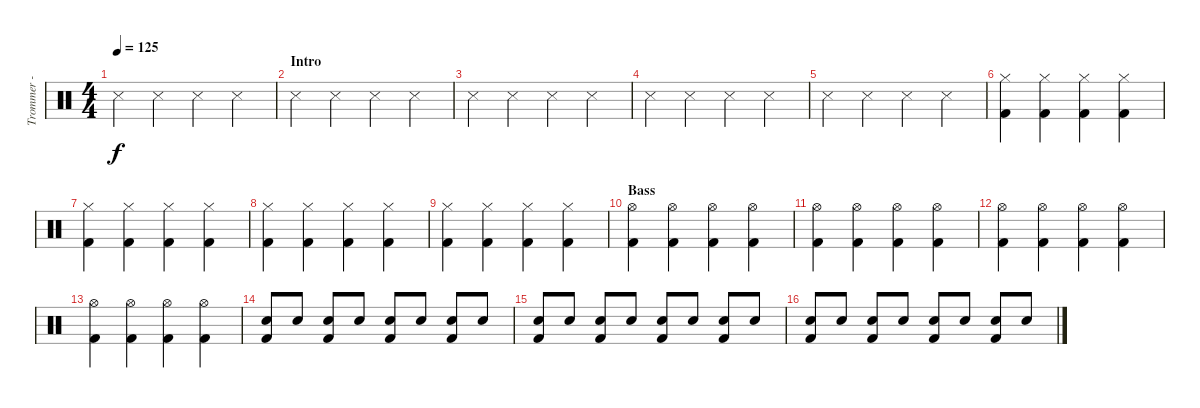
\track ("Trommer - Alex" "Trommer - ") {instrument percussion}
\staff {score}
\articulation defaults
\ts (4 4)
\tempo 125
\clef neutral
\ks c "Snare (side stick) 3".4{dy f} "Snare (side stick) 3".4 "Snare (side stick) 3".4 "Snare (side stick) 3".4
|
\section ("" "Intro")
"Snare (side stick) 3".4 "Snare (side stick) 3".4 "Snare (side stick) 3".4 "Snare (side stick) 3".4 |
"Snare (side stick) 3".4 "Snare (side stick) 3".4 "Snare (side stick) 3".4 "Snare (side stick) 3".4 |
"Snare (side stick) 3".4 "Snare (side stick) 3".4 "Snare (side stick) 3".4 "Snare (side stick) 3".4 |
"Snare (side stick) 3".4 "Snare (side stick) 3".4 "Snare (side stick) 3".4 "Snare (side stick) 3".4 |
("Hi-Hat (closed)" "Kick (hit) 2").4 ("Hi-Hat (closed)" "Kick (hit) 2").4 ("Hi-Hat (closed)" "Kick (hit) 2").4 ("Hi-Hat (closed)" "Kick (hit) 2").4 |
("Hi-Hat (closed)" "Kick (hit) 2").4 ("Hi-Hat (closed)" "Kick (hit) 2").4 ("Hi-Hat (closed)" "Kick (hit) 2").4 ("Hi-Hat (closed)" "Kick (hit) 2").4 |
("Hi-Hat (closed)" "Kick (hit) 2").4 ("Hi-Hat (closed)" "Kick (hit) 2").4 ("Hi-Hat (closed)" "Kick (hit) 2").4 ("Hi-Hat (closed)" "Kick (hit) 2").4 |
("Hi-Hat (closed)" "Kick (hit) 2").4 ("Hi-Hat (closed)" "Kick (hit) 2").4 ("Hi-Hat (closed)" "Kick (hit) 2").4 ("Hi-Hat (closed)" "Kick (hit) 2").4 |
\section ("" "Bass")
("Hi-Hat (open)" "Kick (hit) 2").4 ("Hi-Hat (open)" "Kick (hit) 2").4 ("Hi-Hat (open)" "Kick (hit) 2").4 ("Hi-Hat (open)" "Kick (hit) 2").4 |
("Hi-Hat (open)" "Kick (hit) 2").4 ("Hi-Hat (open)" "Kick (hit) 2").4 ("Hi-Hat (open)" "Kick (hit) 2").4 ("Hi-Hat (open)" "Kick (hit) 2").4 |
("Hi-Hat (open)" "Kick (hit) 2").4 ("Hi-Hat (open)" "Kick (hit) 2").4 ("Hi-Hat (open)" "Kick (hit) 2").4 ("Hi-Hat (open)" "Kick (hit) 2").4 |
("Hi-Hat (open)" "Kick (hit) 2").4 ("Hi-Hat (open)" "Kick (hit) 2").4 ("Hi-Hat (open)" "Kick (hit) 2").4 ("Hi-Hat (open)" "Kick (hit) 2").4 |
("Electric Snare (hit)" "Kick (hit) 2").8 "Electric Snare (hit)".8 ("Electric Snare (hit)" "Kick (hit) 2").8 "Electric Snare (hit)".8 ("Electric Snare (hit)" "Kick (hit) 2").8 "Electric Snare (hit)".8 ("Electric Snare (hit)" "Kick (hit) 2").8 "Electric Snare (hit)".8 |
("Electric Snare (hit)" "Kick (hit) 2").8 "Electric Snare (hit)".8 ("Electric Snare (hit)" "Kick (hit) 2").8 "Electric Snare (hit)".8 ("Electric Snare (hit)" "Kick (hit) 2").8 "Electric Snare (hit)".8 ("Electric Snare (hit)" "Kick (hit) 2").8 "Electric Snare (hit)".8 |
("Electric Snare (hit)" "Kick (hit) 2").8 "Electric Snare (hit)".8 ("Electric Snare (hit)" "Kick (hit) 2").8 "Electric Snare (hit)".8 ("Electric Snare (hit)" "Kick (hit) 2").8 "Electric Snare (hit)".8 ("Electric Snare (hit)" "Kick (hit) 2").8 "Electric Snare (hit)".8
